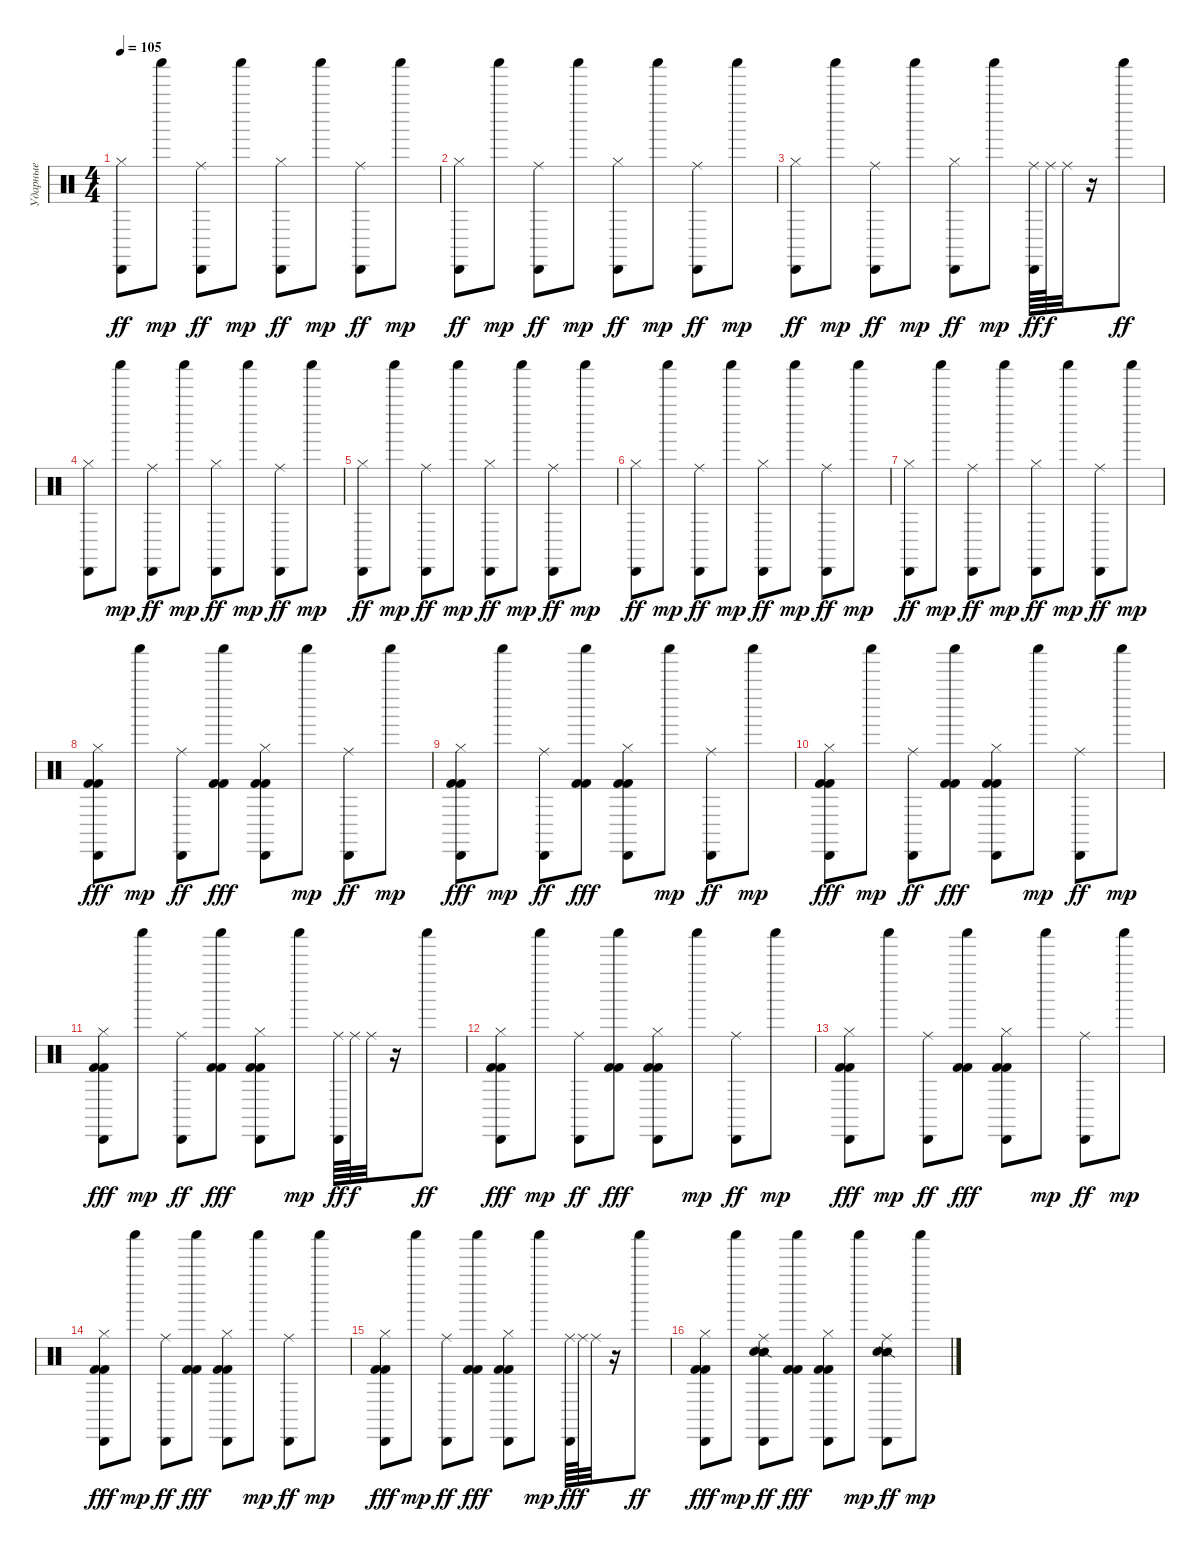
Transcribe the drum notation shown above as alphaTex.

\track ("Ударные" "Ударные") {instrument percussion}
\staff {score}
\articulation defaults
\ts (4 4)
\tempo 105
\clef neutral
\ks c
("Cabasa (hit)" "Hi-Hat (closed)").8{dy ff} "Shaker (hit)".8{dy mp} ("Cabasa (hit)" "Ride (middle)").8{dy ff} "Shaker (hit)".8{dy mp} ("Cabasa (hit)" "Hi-Hat (closed)").8{dy ff} "Shaker (hit)".8{dy mp} ("Cabasa (hit)" "Ride (middle)").8{dy ff} "Shaker (hit)".8{dy mp} |
("Cabasa (hit)" "Hi-Hat (closed)").8{dy ff} "Shaker (hit)".8{dy mp} ("Cabasa (hit)" "Ride (middle)").8{dy ff} "Shaker (hit)".8{dy mp} ("Cabasa (hit)" "Hi-Hat (closed)").8{dy ff} "Shaker (hit)".8{dy mp} ("Cabasa (hit)" "Ride (middle)").8{dy ff} "Shaker (hit)".8{dy mp} |
("Cabasa (hit)" "Hi-Hat (closed)").8{dy ff} "Shaker (hit)".8{dy mp} ("Cabasa (hit)" "Ride (middle)").8{dy ff} "Shaker (hit)".8{dy mp} ("Cabasa (hit)" "Hi-Hat (closed)").8{dy ff} "Shaker (hit)".8{dy mp} ("Cabasa (hit)" "Ride (middle)").64{dy ff} "Ride (middle)".64{dy f} "Ride (middle)".32 r.16 "Shaker (hit)".8{dy ff} |
("Cabasa (hit)" "Hi-Hat (closed)").8 "Shaker (hit)".8{dy mp} ("Cabasa (hit)" "Ride (middle)").8{dy ff} "Shaker (hit)".8{dy mp} ("Cabasa (hit)" "Hi-Hat (closed)").8{dy ff} "Shaker (hit)".8{dy mp} ("Cabasa (hit)" "Ride (middle)").8{dy ff} "Shaker (hit)".8{dy mp} |
("Cabasa (hit)" "Hi-Hat (closed)").8{dy ff} "Shaker (hit)".8{dy mp} ("Cabasa (hit)" "Ride (middle)").8{dy ff} "Shaker (hit)".8{dy mp} ("Cabasa (hit)" "Hi-Hat (closed)").8{dy ff} "Shaker (hit)".8{dy mp} ("Cabasa (hit)" "Ride (middle)").8{dy ff} "Shaker (hit)".8{dy mp} |
("Cabasa (hit)" "Hi-Hat (closed)").8{dy ff} "Shaker (hit)".8{dy mp} ("Cabasa (hit)" "Ride (middle)").8{dy ff} "Shaker (hit)".8{dy mp} ("Cabasa (hit)" "Hi-Hat (closed)").8{dy ff} "Shaker (hit)".8{dy mp} ("Cabasa (hit)" "Ride (middle)").8{dy ff} "Shaker (hit)".8{dy mp} |
("Cabasa (hit)" "Hi-Hat (closed)").8{dy ff} "Shaker (hit)".8{dy mp} ("Cabasa (hit)" "Ride (middle)").8{dy ff} "Shaker (hit)".8{dy mp} ("Cabasa (hit)" "Hi-Hat (closed)").8{dy ff} "Shaker (hit)".8{dy mp} ("Cabasa (hit)" "Ride (middle)").8{dy ff} "Shaker (hit)".8{dy mp} |
("Cabasa (hit)" "Hi-Hat (closed)" "Kick (hit) 2" "Kick (hit) 2").8{dy fff} "Shaker (hit)".8{dy mp} ("Cabasa (hit)" "Ride (middle)").8{dy ff} ("Shaker (hit)" "Kick (hit) 2" "Kick (hit) 2").8{dy fff} ("Cabasa (hit)" "Hi-Hat (closed)" "Kick (hit) 2" "Kick (hit) 2").8 "Shaker (hit)".8{dy mp} ("Cabasa (hit)" "Ride (middle)").8{dy ff} "Shaker (hit)".8{dy mp} |
("Cabasa (hit)" "Hi-Hat (closed)" "Kick (hit) 2" "Kick (hit) 2").8{dy fff} "Shaker (hit)".8{dy mp} ("Cabasa (hit)" "Ride (middle)").8{dy ff} ("Shaker (hit)" "Kick (hit) 2" "Kick (hit) 2").8{dy fff} ("Cabasa (hit)" "Hi-Hat (closed)" "Kick (hit) 2" "Kick (hit) 2").8 "Shaker (hit)".8{dy mp} ("Cabasa (hit)" "Ride (middle)").8{dy ff} "Shaker (hit)".8{dy mp} |
("Cabasa (hit)" "Hi-Hat (closed)" "Kick (hit) 2" "Kick (hit) 2").8{dy fff} "Shaker (hit)".8{dy mp} ("Cabasa (hit)" "Ride (middle)").8{dy ff} ("Shaker (hit)" "Kick (hit) 2" "Kick (hit) 2").8{dy fff} ("Cabasa (hit)" "Hi-Hat (closed)" "Kick (hit) 2" "Kick (hit) 2").8 "Shaker (hit)".8{dy mp} ("Cabasa (hit)" "Ride (middle)").8{dy ff} "Shaker (hit)".8{dy mp} |
("Cabasa (hit)" "Hi-Hat (closed)" "Kick (hit) 2" "Kick (hit) 2").8{dy fff} "Shaker (hit)".8{dy mp} ("Cabasa (hit)" "Ride (middle)").8{dy ff} ("Shaker (hit)" "Kick (hit) 2" "Kick (hit) 2").8{dy fff} ("Cabasa (hit)" "Hi-Hat (closed)" "Kick (hit) 2" "Kick (hit) 2").8 "Shaker (hit)".8{dy mp} ("Cabasa (hit)" "Ride (middle)").64{dy ff} "Ride (middle)".64{dy f} "Ride (middle)".32 r.16 "Shaker (hit)".8{dy ff} |
("Cabasa (hit)" "Hi-Hat (closed)" "Kick (hit) 2" "Kick (hit) 2").8{dy fff} "Shaker (hit)".8{dy mp} ("Cabasa (hit)" "Ride (middle)").8{dy ff} ("Shaker (hit)" "Kick (hit) 2" "Kick (hit) 2").8{dy fff} ("Cabasa (hit)" "Hi-Hat (closed)" "Kick (hit) 2" "Kick (hit) 2").8 "Shaker (hit)".8{dy mp} ("Cabasa (hit)" "Ride (middle)").8{dy ff} "Shaker (hit)".8{dy mp} |
("Cabasa (hit)" "Hi-Hat (closed)" "Kick (hit) 2" "Kick (hit) 2").8{dy fff} "Shaker (hit)".8{dy mp} ("Cabasa (hit)" "Ride (middle)").8{dy ff} ("Shaker (hit)" "Kick (hit) 2" "Kick (hit) 2").8{dy fff} ("Cabasa (hit)" "Hi-Hat (closed)" "Kick (hit) 2" "Kick (hit) 2").8 "Shaker (hit)".8{dy mp} ("Cabasa (hit)" "Ride (middle)").8{dy ff} "Shaker (hit)".8{dy mp} |
("Cabasa (hit)" "Hi-Hat (closed)" "Kick (hit) 2" "Kick (hit) 2").8{dy fff} "Shaker (hit)".8{dy mp} ("Cabasa (hit)" "Ride (middle)").8{dy ff} ("Shaker (hit)" "Kick (hit) 2" "Kick (hit) 2").8{dy fff} ("Cabasa (hit)" "Hi-Hat (closed)" "Kick (hit) 2" "Kick (hit) 2").8 "Shaker (hit)".8{dy mp} ("Cabasa (hit)" "Ride (middle)").8{dy ff} "Shaker (hit)".8{dy mp} |
("Cabasa (hit)" "Hi-Hat (closed)" "Kick (hit) 2" "Kick (hit) 2").8{dy fff} "Shaker (hit)".8{dy mp} ("Cabasa (hit)" "Ride (middle)").8{dy ff} ("Shaker (hit)" "Kick (hit) 2" "Kick (hit) 2").8{dy fff} ("Cabasa (hit)" "Hi-Hat (closed)" "Kick (hit) 2" "Kick (hit) 2").8 "Shaker (hit)".8{dy mp} ("Cabasa (hit)" "Ride (middle)").64{dy ff} "Ride (middle)".64{dy f} "Ride (middle)".32 r.16 "Shaker (hit)".8{dy ff} |
("Cabasa (hit)" "Hi-Hat (closed)" "Kick (hit) 2" "Kick (hit) 2").8{dy fff} "Shaker (hit)".8{dy mp} ("Cabasa (hit)" "Ride (middle)" "Snare (side stick) 2" "Hand Clap (hit)").8{dy ff} ("Shaker (hit)" "Kick (hit) 2" "Kick (hit) 2").8{dy fff} ("Cabasa (hit)" "Hi-Hat (closed)" "Kick (hit) 2" "Kick (hit) 2").8 "Shaker (hit)".8{dy mp} ("Cabasa (hit)" "Ride (middle)" "Snare (side stick) 2" "Hand Clap (hit)").8{dy ff} "Shaker (hit)".8{dy mp}
